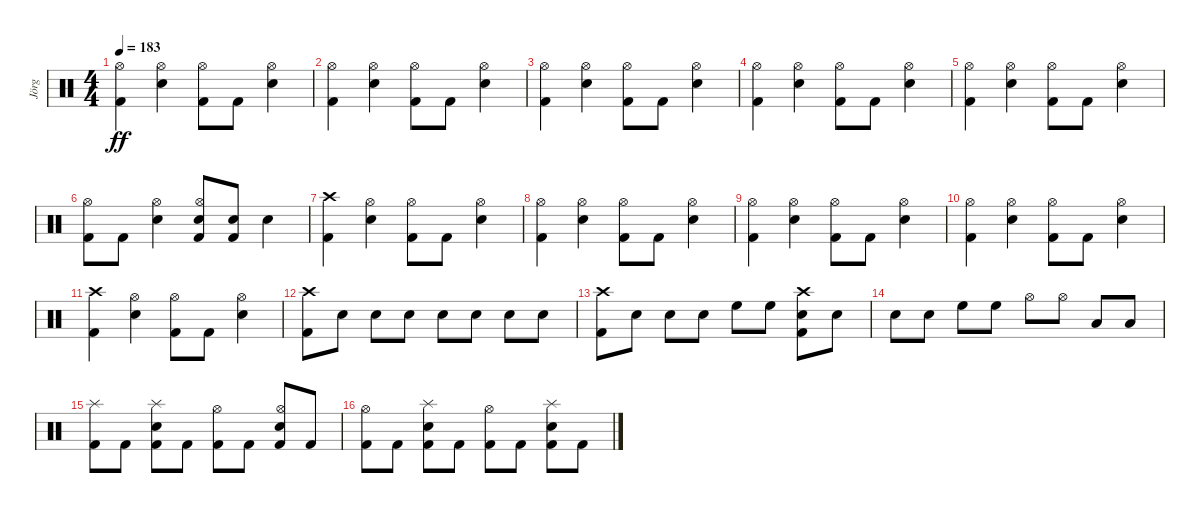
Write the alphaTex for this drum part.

\track ("Jörg" "Jörg") {instrument percussion}
\staff {score}
\articulation defaults
\ts (4 4)
\tempo 183
\clef neutral
\ks c
("Kick (hit) 2" "Hi-Hat (open)").4{dy ff} ("Snare (hit) 2" "Hi-Hat (open)").4 ("Kick (hit) 2" "Hi-Hat (open)").8 "Kick (hit) 2".8 ("Snare (hit) 2" "Hi-Hat (open)").4 |
("Kick (hit) 2" "Hi-Hat (open)").4 ("Snare (hit) 2" "Hi-Hat (open)").4 ("Kick (hit) 2" "Hi-Hat (open)").8 "Kick (hit) 2".8 ("Snare (hit) 2" "Hi-Hat (open)").4 |
("Kick (hit) 2" "Hi-Hat (open)").4 ("Snare (hit) 2" "Hi-Hat (open)").4 ("Kick (hit) 2" "Hi-Hat (open)").8 "Kick (hit) 2".8 ("Snare (hit) 2" "Hi-Hat (open)").4 |
("Kick (hit) 2" "Hi-Hat (open)").4 ("Snare (hit) 2" "Hi-Hat (open)").4 ("Kick (hit) 2" "Hi-Hat (open)").8 "Kick (hit) 2".8 ("Snare (hit) 2" "Hi-Hat (open)").4 |
("Kick (hit) 2" "Hi-Hat (open)").4 ("Snare (hit) 2" "Hi-Hat (open)").4 ("Kick (hit) 2" "Hi-Hat (open)").8 "Kick (hit) 2".8 ("Snare (hit) 2" "Hi-Hat (open)").4 |
("Kick (hit) 2" "Hi-Hat (open)").8 "Kick (hit) 2".8 ("Snare (hit) 2" "Hi-Hat (open)").4 ("Snare (hit) 2" "Kick (hit) 2" "Hi-Hat (open)").8 ("Snare (hit) 2" "Kick (hit) 2").8 "Snare (hit) 2".4 |
("Kick (hit) 2" "Crash high (hit)").4 ("Snare (hit) 2" "Hi-Hat (open)").4 ("Kick (hit) 2" "Hi-Hat (open)").8 "Kick (hit) 2".8 ("Snare (hit) 2" "Hi-Hat (open)").4 |
("Kick (hit) 2" "Hi-Hat (open)").4 ("Snare (hit) 2" "Hi-Hat (open)").4 ("Kick (hit) 2" "Hi-Hat (open)").8 "Kick (hit) 2".8 ("Snare (hit) 2" "Hi-Hat (open)").4 |
("Kick (hit) 2" "Hi-Hat (open)").4 ("Snare (hit) 2" "Hi-Hat (open)").4 ("Kick (hit) 2" "Hi-Hat (open)").8 "Kick (hit) 2".8 ("Snare (hit) 2" "Hi-Hat (open)").4 |
("Kick (hit) 2" "Hi-Hat (open)").4 ("Snare (hit) 2" "Hi-Hat (open)").4 ("Kick (hit) 2" "Hi-Hat (open)").8 "Kick (hit) 2".8 ("Snare (hit) 2" "Hi-Hat (open)").4 |
("Kick (hit) 2" "Crash high (hit)").4 ("Snare (hit) 2" "Hi-Hat (open)").4 ("Kick (hit) 2" "Hi-Hat (open)").8 "Kick (hit) 2".8 ("Snare (hit) 2" "Hi-Hat (open)").4 |
("Kick (hit) 2" "Crash high (hit)").8 "Snare (hit) 2".8 "Snare (hit) 2".8 "Snare (hit) 2".8 "Snare (hit) 2".8 "Snare (hit) 2".8 "Snare (hit) 2".8 "Snare (hit) 2".8 |
("Kick (hit) 2" "Crash high (hit)").8 "Snare (hit) 2".8 "Snare (hit) 2".8 "Snare (hit) 2".8 "High Floor Tom (hit)".8 "High Floor Tom (hit)".8 ("Kick (hit) 2" "Snare (hit) 2" "Crash high (hit)").8 "Snare (hit) 2".8 |
"Snare (hit) 2".8 "Snare (hit) 2".8 "High Floor Tom (hit)".8 "High Floor Tom (hit)".8 "Hi-Hat (open)".8 "Hi-Hat (open)".8 "Low Tom (hit)".8 "Low Tom (hit)".8 |
("Kick (hit) 2" "Splash (hit)").8 "Kick (hit) 2".8 ("Snare (hit) 2" "Kick (hit) 2" "Splash (hit)").8 "Kick (hit) 2".8 ("Kick (hit) 2" "Hi-Hat (open)").8 "Kick (hit) 2".8 ("Snare (hit) 2" "Kick (hit) 2" "Hi-Hat (open)").8 "Kick (hit) 2".8 |
("Hi-Hat (open)" "Kick (hit) 2").8 "Kick (hit) 2".8 ("Snare (hit) 2" "Kick (hit) 2" "Splash (hit)").8 "Kick (hit) 2".8 ("Kick (hit) 2" "Hi-Hat (open)").8 "Kick (hit) 2".8 ("Snare (hit) 2" "Kick (hit) 2" "Splash (hit)").8 "Kick (hit) 2".8
